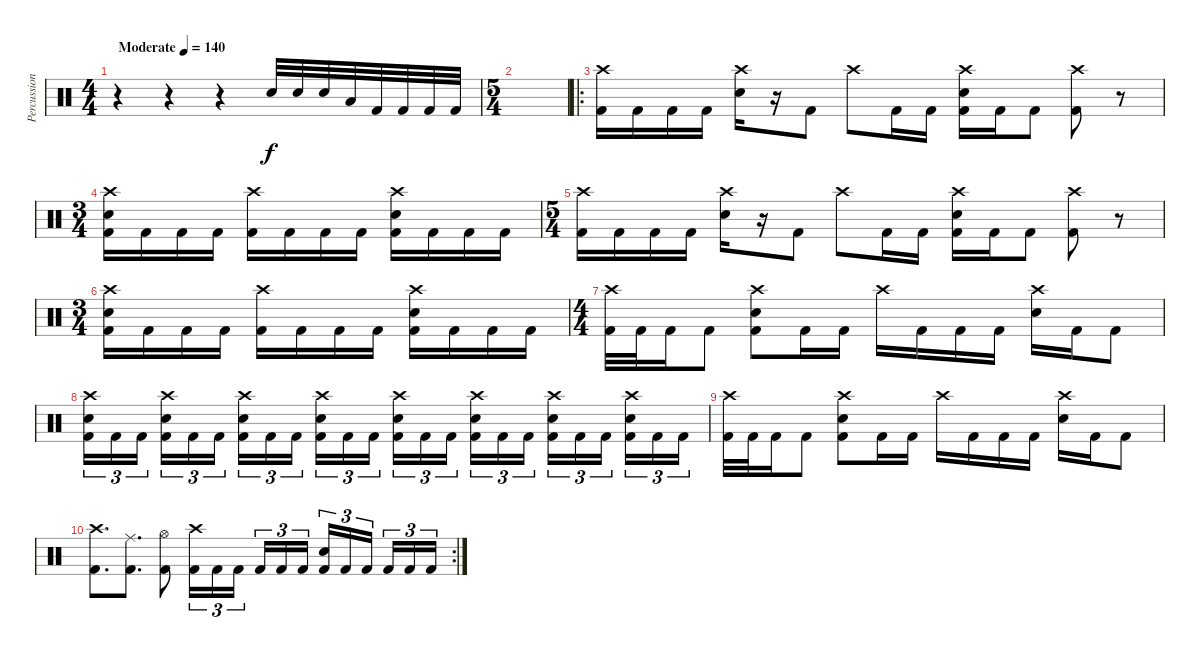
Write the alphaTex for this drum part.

\track ("Percussion" "Percussion") {instrument percussion}
\staff {score}
\articulation defaults
\ts (4 4)
\tempo (140 "Moderate")
\clef neutral
\ks c
r.4{dy f} r.4 r.4 "Electric Snare (hit)".32 "Electric Snare (hit)".32 "Electric Snare (hit)".32 "Low Floor Tom (hit)".32 "Kick (hit) 2".32 "Kick (hit) 2".32 "Kick (hit) 2".32 "Kick (hit) 2".32 |
\ts (5 4)
|
\ro
("Crash high (hit)" "Kick (hit) 2").16 "Kick (hit) 2".16 "Kick (hit) 2".16 "Kick (hit) 2".16 ("Crash high (hit)" "Electric Snare (hit)").16 r.16 "Kick (hit) 2".8 "Crash high (hit)".8 "Kick (hit) 2".16 "Kick (hit) 2".16 ("Crash high (hit)" "Electric Snare (hit)" "Kick (hit) 2").16 "Kick (hit) 2".16 "Kick (hit) 2".8 ("Crash high (hit)" "Kick (hit) 2").8 r.8 |
\ts (3 4)
("Crash high (hit)" "Electric Snare (hit)" "Kick (hit) 2").16 "Kick (hit) 2".16 "Kick (hit) 2".16 "Kick (hit) 2".16 ("Crash high (hit)" "Kick (hit) 2").16 "Kick (hit) 2".16 "Kick (hit) 2".16 "Kick (hit) 2".16 ("Crash high (hit)" "Electric Snare (hit)" "Kick (hit) 2").16 "Kick (hit) 2".16 "Kick (hit) 2".16 "Kick (hit) 2".16 |
\ts (5 4)
("Crash high (hit)" "Kick (hit) 2").16 "Kick (hit) 2".16 "Kick (hit) 2".16 "Kick (hit) 2".16 ("Crash high (hit)" "Electric Snare (hit)").16 r.16 "Kick (hit) 2".8 "Crash high (hit)".8 "Kick (hit) 2".16 "Kick (hit) 2".16 ("Crash high (hit)" "Electric Snare (hit)" "Kick (hit) 2").16 "Kick (hit) 2".16 "Kick (hit) 2".8 ("Crash high (hit)" "Kick (hit) 2").8 r.8 |
\ts (3 4)
("Crash high (hit)" "Electric Snare (hit)" "Kick (hit) 2").16 "Kick (hit) 2".16 "Kick (hit) 2".16 "Kick (hit) 2".16 ("Crash high (hit)" "Kick (hit) 2").16 "Kick (hit) 2".16 "Kick (hit) 2".16 "Kick (hit) 2".16 ("Crash high (hit)" "Electric Snare (hit)" "Kick (hit) 2").16 "Kick (hit) 2".16 "Kick (hit) 2".16 "Kick (hit) 2".16 |
\ts (4 4)
("Crash high (hit)" "Kick (hit) 2").32 "Kick (hit) 2".32 "Kick (hit) 2".16 "Kick (hit) 2".8 ("Crash high (hit)" "Electric Snare (hit)" "Kick (hit) 2").8 "Kick (hit) 2".16 "Kick (hit) 2".16 "Crash high (hit)".16 "Kick (hit) 2".16 "Kick (hit) 2".16 "Kick (hit) 2".16 ("Crash high (hit)" "Electric Snare (hit)").16 "Kick (hit) 2".16 "Kick (hit) 2".8 |
("Crash high (hit)" "Electric Snare (hit)" "Kick (hit) 2").16{tu (3 2)} "Kick (hit) 2".16{tu (3 2)} "Kick (hit) 2".16{tu (3 2) beam splitsecondary} ("Crash high (hit)" "Electric Snare (hit)" "Kick (hit) 2").16{tu (3 2)} "Kick (hit) 2".16{tu (3 2)} "Kick (hit) 2".16{tu (3 2)} ("Crash high (hit)" "Electric Snare (hit)" "Kick (hit) 2").16{tu (3 2)} "Kick (hit) 2".16{tu (3 2)} "Kick (hit) 2".16{tu (3 2) beam splitsecondary} ("Crash high (hit)" "Electric Snare (hit)" "Kick (hit) 2").16{tu (3 2)} "Kick (hit) 2".16{tu (3 2)} "Kick (hit) 2".16{tu (3 2)} ("Crash high (hit)" "Electric Snare (hit)" "Kick (hit) 2").16{tu (3 2)} "Kick (hit) 2".16{tu (3 2)} "Kick (hit) 2".16{tu (3 2) beam splitsecondary} ("Crash high (hit)" "Electric Snare (hit)" "Kick (hit) 2").16{tu (3 2)} "Kick (hit) 2".16{tu (3 2)} "Kick (hit) 2".16{tu (3 2)} ("Crash high (hit)" "Electric Snare (hit)" "Kick (hit) 2").16{tu (3 2)} "Kick (hit) 2".16{tu (3 2)} "Kick (hit) 2".16{tu (3 2) beam splitsecondary} ("Crash high (hit)" "Electric Snare (hit)" "Kick (hit) 2").16{tu (3 2)} "Kick (hit) 2".16{tu (3 2)} "Kick (hit) 2".16{tu (3 2)} |
("Crash high (hit)" "Kick (hit) 2").32 "Kick (hit) 2".32 "Kick (hit) 2".16 "Kick (hit) 2".8 ("Crash high (hit)" "Electric Snare (hit)" "Kick (hit) 2").8 "Kick (hit) 2".16 "Kick (hit) 2".16 "Crash high (hit)".16 "Kick (hit) 2".16 "Kick (hit) 2".16 "Kick (hit) 2".16 ("Crash high (hit)" "Electric Snare (hit)").16 "Kick (hit) 2".16 "Kick (hit) 2".8 |
\rc 2
("Crash high (hit)" "Kick (hit) 2").8{d} ("Ride (middle)" "Kick (hit) 2").8{d} ("Hi-Hat (open)" "Kick (hit) 2").8 ("Crash high (hit)" "Kick (hit) 2").16{tu (3 2)} "Kick (hit) 2".16{tu (3 2)} "Kick (hit) 2".16{tu (3 2) beam splitsecondary} "Kick (hit) 2".16{tu (3 2)} "Kick (hit) 2".16{tu (3 2)} "Kick (hit) 2".16{tu (3 2)} ("Electric Snare (hit)" "Kick (hit) 2").16{tu (3 2)} "Kick (hit) 2".16{tu (3 2)} "Kick (hit) 2".16{tu (3 2) beam splitsecondary} "Kick (hit) 2".16{tu (3 2)} "Kick (hit) 2".16{tu (3 2)} "Kick (hit) 2".16{tu (3 2)}
